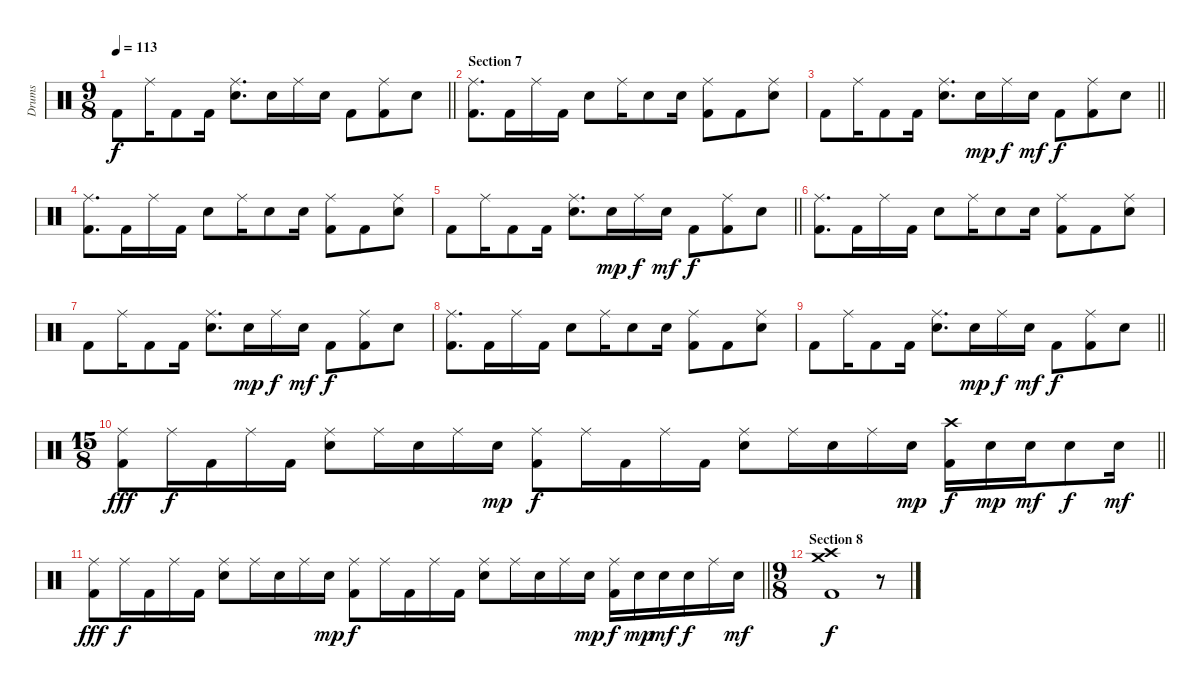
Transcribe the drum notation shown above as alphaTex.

\track ("Drums" "Drums") {instrument percussion}
\staff {score}
\articulation defaults
\ts (9 8)
\tempo 113
\clef neutral
\barLineRight lightlight
\ks c "Kick (hit) 2".8{dy f} "Ride (middle)".16 "Kick (hit) 2".8 "Kick (hit) 2".16
("Ride (middle)" "Electric Snare (hit)").8{d} "Electric Snare (hit)".16 "Ride (middle)".16 "Electric Snare (hit)".16 "Kick (hit) 2".8 ("Ride (middle)" "Kick (hit) 2").8 "Electric Snare (hit)".8 |
\section ("" "Section 7")
("Ride (middle)" "Kick (hit) 2").8{d} "Kick (hit) 2".16 "Ride (middle)".16 "Kick (hit) 2".16 "Electric Snare (hit)".8 "Ride (middle)".16 "Electric Snare (hit)".8 "Electric Snare (hit)".16 ("Ride (middle)" "Kick (hit) 2").8 "Kick (hit) 2".8 ("Ride (middle)" "Electric Snare (hit)").8 |
\barLineRight lightlight "Kick (hit) 2".8 "Ride (middle)".16 "Kick (hit) 2".8 "Kick (hit) 2".16
("Ride (middle)" "Electric Snare (hit)").8{d} "Electric Snare (hit)".16{dy mp} "Ride (middle)".16{dy f} "Electric Snare (hit)".16{dy mf} "Kick (hit) 2".8{dy f} ("Ride (middle)" "Kick (hit) 2").8 "Electric Snare (hit)".8 |
("Ride (middle)" "Kick (hit) 2").8{d} "Kick (hit) 2".16 "Ride (middle)".16 "Kick (hit) 2".16 "Electric Snare (hit)".8 "Ride (middle)".16 "Electric Snare (hit)".8 "Electric Snare (hit)".16 ("Ride (middle)" "Kick (hit) 2").8 "Kick (hit) 2".8 ("Ride (middle)" "Electric Snare (hit)").8 |
\barLineRight lightlight "Kick (hit) 2".8 "Ride (middle)".16 "Kick (hit) 2".8 "Kick (hit) 2".16
("Ride (middle)" "Electric Snare (hit)").8{d} "Electric Snare (hit)".16{dy mp} "Ride (middle)".16{dy f} "Electric Snare (hit)".16{dy mf} "Kick (hit) 2".8{dy f} ("Ride (middle)" "Kick (hit) 2").8 "Electric Snare (hit)".8 |
("Ride (middle)" "Kick (hit) 2").8{d} "Kick (hit) 2".16 "Ride (middle)".16 "Kick (hit) 2".16 "Electric Snare (hit)".8 "Ride (middle)".16 "Electric Snare (hit)".8 "Electric Snare (hit)".16 ("Ride (middle)" "Kick (hit) 2").8 "Kick (hit) 2".8 ("Ride (middle)" "Electric Snare (hit)").8 |
"Kick (hit) 2".8 "Ride (middle)".16 "Kick (hit) 2".8 "Kick (hit) 2".16 ("Ride (middle)" "Electric Snare (hit)").8{d} "Electric Snare (hit)".16{dy mp} "Ride (middle)".16{dy f} "Electric Snare (hit)".16{dy mf} "Kick (hit) 2".8{dy f} ("Ride (middle)" "Kick (hit) 2").8 "Electric Snare (hit)".8 |
("Ride (middle)" "Kick (hit) 2").8{d} "Kick (hit) 2".16 "Ride (middle)".16 "Kick (hit) 2".16 "Electric Snare (hit)".8 "Ride (middle)".16 "Electric Snare (hit)".8 "Electric Snare (hit)".16 ("Ride (middle)" "Kick (hit) 2").8 "Kick (hit) 2".8 ("Ride (middle)" "Electric Snare (hit)").8 |
\barLineRight lightlight "Kick (hit) 2".8 "Ride (middle)".16 "Kick (hit) 2".8 "Kick (hit) 2".16
("Ride (middle)" "Electric Snare (hit)").8{d} "Electric Snare (hit)".16{dy mp} "Ride (middle)".16{dy f} "Electric Snare (hit)".16{dy mf} "Kick (hit) 2".8{dy f} ("Ride (middle)" "Kick (hit) 2").8 "Electric Snare (hit)".8 |
\ts (15 8)
\barLineRight lightlight
("Ride (middle)" "Kick (hit) 2").8{dy fff} "Ride (middle)".16{dy f} "Kick (hit) 2".16 "Ride (middle)".16 "Kick (hit) 2".16 ("Ride (middle)" "Electric Snare (hit)").8 "Ride (middle)".16 "Electric Snare (hit)".16 "Ride (middle)".16 "Electric Snare (hit)".16{dy mp} ("Ride (middle)" "Kick (hit) 2").8{dy f} "Ride (middle)".16 "Kick (hit) 2".16 "Ride (middle)".16 "Kick (hit) 2".16 ("Ride (middle)" "Electric Snare (hit)").8 "Ride (middle)".16 "Electric Snare (hit)".16 "Ride (middle)".16 "Electric Snare (hit)".16{dy mp} ("Crash high (hit)" "Kick (hit) 2").16{dy f} "Electric Snare (hit)".16{dy mp} "Electric Snare (hit)".16{dy mf} "Electric Snare (hit)".8{dy f} "Electric Snare (hit)".16{dy mf} |
\barLineRight lightlight
("Ride (middle)" "Kick (hit) 2").8{dy fff} "Ride (middle)".16{dy f} "Kick (hit) 2".16 "Ride (middle)".16 "Kick (hit) 2".16 ("Ride (middle)" "Electric Snare (hit)").8 "Ride (middle)".16 "Electric Snare (hit)".16 "Ride (middle)".16 "Electric Snare (hit)".16{dy mp} ("Ride (middle)" "Kick (hit) 2").8{dy f} "Ride (middle)".16 "Kick (hit) 2".16 "Ride (middle)".16 "Kick (hit) 2".16 ("Ride (middle)" "Electric Snare (hit)").8 "Ride (middle)".16 "Electric Snare (hit)".16 "Ride (middle)".16 "Electric Snare (hit)".16{dy mp} ("Ride (middle)" "Kick (hit) 2").16{dy f} "Electric Snare (hit)".16{dy mp} "Electric Snare (hit)".16{dy mf} "Electric Snare (hit)".16{dy f} "Ride (middle)".16 "Electric Snare (hit)".16{dy mf} |
\ts (9 8)
\section ("" "Section 8")
("Crash medium (hit)" "Crash high (hit)" "Kick (hit) 2").1{dy f} r.8
